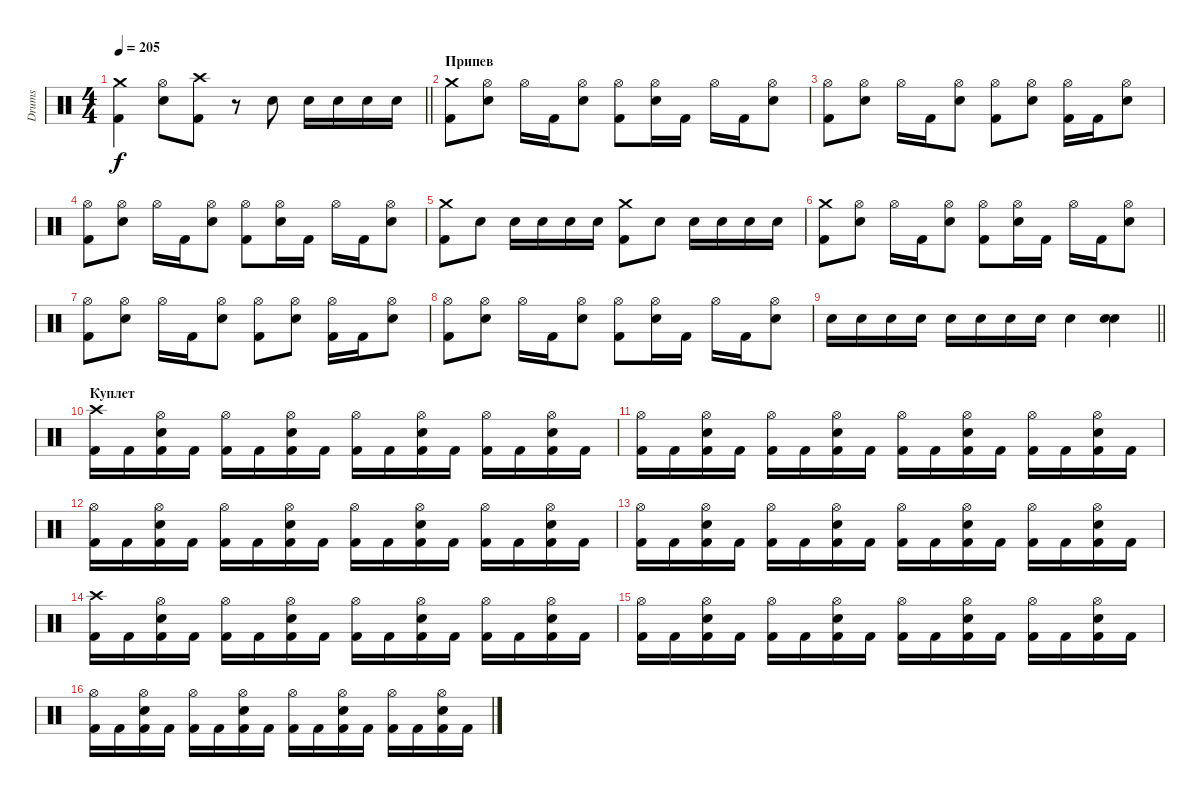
\track ("Drums" "Drums") {instrument percussion}
\staff {score}
\articulation defaults
\ts (4 4)
\tempo 205
\clef neutral
\barLineRight lightlight
\ks c
("Kick (hit) 2" "Crash medium (hit)").4{dy f} ("Electric Snare (hit)" "Hi-Hat (open)").8 ("Kick (hit) 2" "Crash high (hit)").8 r.8 "Electric Snare (hit)".8 "Electric Snare (hit)".16 "Electric Snare (hit)".16 "Electric Snare (hit)".16 "Electric Snare (hit)".16 |
\section ("" "Припев")
("Kick (hit) 2" "Crash medium (hit)").8 ("Electric Snare (hit)" "Hi-Hat (open)").8 "Hi-Hat (open)".16 "Kick (hit) 2".16 ("Electric Snare (hit)" "Hi-Hat (open)").8 ("Kick (hit) 2" "Hi-Hat (open)").8 ("Electric Snare (hit)" "Hi-Hat (open)").16 "Kick (hit) 2".16 "Hi-Hat (open)".16 "Kick (hit) 2".16 ("Electric Snare (hit)" "Hi-Hat (open)").8 |
("Kick (hit) 2" "Hi-Hat (open)").8 ("Electric Snare (hit)" "Hi-Hat (open)").8 "Hi-Hat (open)".16 "Kick (hit) 2".16 ("Electric Snare (hit)" "Hi-Hat (open)").8 ("Kick (hit) 2" "Hi-Hat (open)").8 ("Electric Snare (hit)" "Hi-Hat (open)").8 ("Kick (hit) 2" "Hi-Hat (open)").16 "Kick (hit) 2".16 ("Electric Snare (hit)" "Hi-Hat (open)").8 |
("Kick (hit) 2" "Hi-Hat (open)").8 ("Electric Snare (hit)" "Hi-Hat (open)").8 "Hi-Hat (open)".16 "Kick (hit) 2".16 ("Electric Snare (hit)" "Hi-Hat (open)").8 ("Kick (hit) 2" "Hi-Hat (open)").8 ("Electric Snare (hit)" "Hi-Hat (open)").16 "Kick (hit) 2".16 "Hi-Hat (open)".16 "Kick (hit) 2".16 ("Electric Snare (hit)" "Hi-Hat (open)").8 |
("Kick (hit) 2" "Crash medium (hit)").8 "Electric Snare (hit)".8 "Electric Snare (hit)".16 "Electric Snare (hit)".16 "Electric Snare (hit)".16 "Electric Snare (hit)".16 ("Kick (hit) 2" "Crash medium (hit)").8 "Electric Snare (hit)".8 "Electric Snare (hit)".16 "Electric Snare (hit)".16 "Electric Snare (hit)".16 "Electric Snare (hit)".16 |
("Kick (hit) 2" "Crash medium (hit)").8 ("Electric Snare (hit)" "Hi-Hat (open)").8 "Hi-Hat (open)".16 "Kick (hit) 2".16 ("Electric Snare (hit)" "Hi-Hat (open)").8 ("Kick (hit) 2" "Hi-Hat (open)").8 ("Electric Snare (hit)" "Hi-Hat (open)").16 "Kick (hit) 2".16 "Hi-Hat (open)".16 "Kick (hit) 2".16 ("Electric Snare (hit)" "Hi-Hat (open)").8 |
("Kick (hit) 2" "Hi-Hat (open)").8 ("Electric Snare (hit)" "Hi-Hat (open)").8 "Hi-Hat (open)".16 "Kick (hit) 2".16 ("Electric Snare (hit)" "Hi-Hat (open)").8 ("Kick (hit) 2" "Hi-Hat (open)").8 ("Electric Snare (hit)" "Hi-Hat (open)").8 ("Kick (hit) 2" "Hi-Hat (open)").16 "Kick (hit) 2".16 ("Electric Snare (hit)" "Hi-Hat (open)").8 |
("Kick (hit) 2" "Hi-Hat (open)").8 ("Electric Snare (hit)" "Hi-Hat (open)").8 "Hi-Hat (open)".16 "Kick (hit) 2".16 ("Electric Snare (hit)" "Hi-Hat (open)").8 ("Kick (hit) 2" "Hi-Hat (open)").8 ("Electric Snare (hit)" "Hi-Hat (open)").16 "Kick (hit) 2".16 "Hi-Hat (open)".16 "Kick (hit) 2".16 ("Electric Snare (hit)" "Hi-Hat (open)").8 |
\barLineRight lightlight "Electric Snare (hit)".16 "Electric Snare (hit)".16 "Electric Snare (hit)".16 "Electric Snare (hit)".16 "Electric Snare (hit)".16 "Electric Snare (hit)".16 "Electric Snare (hit)".16 "Electric Snare (hit)".16 "Electric Snare (hit)".4
("Electric Snare (hit)" "Electric Snare (hit)").4 |
\section ("" "Куплет")
("Kick (hit) 2" "Crash high (hit)").16 "Kick (hit) 2".16 ("Kick (hit) 2" "Electric Snare (hit)" "Hi-Hat (open)").16 "Kick (hit) 2".16 ("Kick (hit) 2" "Hi-Hat (open)").16 "Kick (hit) 2".16 ("Kick (hit) 2" "Electric Snare (hit)" "Hi-Hat (open)").16 "Kick (hit) 2".16 ("Kick (hit) 2" "Hi-Hat (open)").16 "Kick (hit) 2".16 ("Kick (hit) 2" "Electric Snare (hit)" "Hi-Hat (open)").16 "Kick (hit) 2".16 ("Kick (hit) 2" "Hi-Hat (open)").16 "Kick (hit) 2".16 ("Kick (hit) 2" "Electric Snare (hit)" "Hi-Hat (open)").16 "Kick (hit) 2".16 |
("Kick (hit) 2" "Hi-Hat (open)").16 "Kick (hit) 2".16 ("Kick (hit) 2" "Electric Snare (hit)" "Hi-Hat (open)").16 "Kick (hit) 2".16 ("Kick (hit) 2" "Hi-Hat (open)").16 "Kick (hit) 2".16 ("Kick (hit) 2" "Electric Snare (hit)" "Hi-Hat (open)").16 "Kick (hit) 2".16 ("Kick (hit) 2" "Hi-Hat (open)").16 "Kick (hit) 2".16 ("Kick (hit) 2" "Electric Snare (hit)" "Hi-Hat (open)").16 "Kick (hit) 2".16 ("Kick (hit) 2" "Hi-Hat (open)").16 "Kick (hit) 2".16 ("Kick (hit) 2" "Electric Snare (hit)" "Hi-Hat (open)").16 "Kick (hit) 2".16 |
("Kick (hit) 2" "Hi-Hat (open)").16 "Kick (hit) 2".16 ("Kick (hit) 2" "Electric Snare (hit)" "Hi-Hat (open)").16 "Kick (hit) 2".16 ("Kick (hit) 2" "Hi-Hat (open)").16 "Kick (hit) 2".16 ("Kick (hit) 2" "Electric Snare (hit)" "Hi-Hat (open)").16 "Kick (hit) 2".16 ("Kick (hit) 2" "Hi-Hat (open)").16 "Kick (hit) 2".16 ("Kick (hit) 2" "Electric Snare (hit)" "Hi-Hat (open)").16 "Kick (hit) 2".16 ("Kick (hit) 2" "Hi-Hat (open)").16 "Kick (hit) 2".16 ("Kick (hit) 2" "Electric Snare (hit)" "Hi-Hat (open)").16 "Kick (hit) 2".16 |
("Kick (hit) 2" "Hi-Hat (open)").16 "Kick (hit) 2".16 ("Kick (hit) 2" "Electric Snare (hit)" "Hi-Hat (open)").16 "Kick (hit) 2".16 ("Kick (hit) 2" "Hi-Hat (open)").16 "Kick (hit) 2".16 ("Kick (hit) 2" "Electric Snare (hit)" "Hi-Hat (open)").16 "Kick (hit) 2".16 ("Kick (hit) 2" "Hi-Hat (open)").16 "Kick (hit) 2".16 ("Kick (hit) 2" "Electric Snare (hit)" "Hi-Hat (open)").16 "Kick (hit) 2".16 ("Kick (hit) 2" "Hi-Hat (open)").16 "Kick (hit) 2".16 ("Kick (hit) 2" "Electric Snare (hit)" "Hi-Hat (open)").16 "Kick (hit) 2".16 |
("Kick (hit) 2" "Crash high (hit)").16 "Kick (hit) 2".16 ("Kick (hit) 2" "Electric Snare (hit)" "Hi-Hat (open)").16 "Kick (hit) 2".16 ("Kick (hit) 2" "Hi-Hat (open)").16 "Kick (hit) 2".16 ("Kick (hit) 2" "Electric Snare (hit)" "Hi-Hat (open)").16 "Kick (hit) 2".16 ("Kick (hit) 2" "Hi-Hat (open)").16 "Kick (hit) 2".16 ("Kick (hit) 2" "Electric Snare (hit)" "Hi-Hat (open)").16 "Kick (hit) 2".16 ("Kick (hit) 2" "Hi-Hat (open)").16 "Kick (hit) 2".16 ("Kick (hit) 2" "Electric Snare (hit)" "Hi-Hat (open)").16 "Kick (hit) 2".16 |
("Kick (hit) 2" "Hi-Hat (open)").16 "Kick (hit) 2".16 ("Kick (hit) 2" "Electric Snare (hit)" "Hi-Hat (open)").16 "Kick (hit) 2".16 ("Kick (hit) 2" "Hi-Hat (open)").16 "Kick (hit) 2".16 ("Kick (hit) 2" "Electric Snare (hit)" "Hi-Hat (open)").16 "Kick (hit) 2".16 ("Kick (hit) 2" "Hi-Hat (open)").16 "Kick (hit) 2".16 ("Kick (hit) 2" "Electric Snare (hit)" "Hi-Hat (open)").16 "Kick (hit) 2".16 ("Kick (hit) 2" "Hi-Hat (open)").16 "Kick (hit) 2".16 ("Kick (hit) 2" "Electric Snare (hit)" "Hi-Hat (open)").16 "Kick (hit) 2".16 |
("Kick (hit) 2" "Hi-Hat (open)").16 "Kick (hit) 2".16 ("Kick (hit) 2" "Electric Snare (hit)" "Hi-Hat (open)").16 "Kick (hit) 2".16 ("Kick (hit) 2" "Hi-Hat (open)").16 "Kick (hit) 2".16 ("Kick (hit) 2" "Electric Snare (hit)" "Hi-Hat (open)").16 "Kick (hit) 2".16 ("Kick (hit) 2" "Hi-Hat (open)").16 "Kick (hit) 2".16 ("Kick (hit) 2" "Electric Snare (hit)" "Hi-Hat (open)").16 "Kick (hit) 2".16 ("Kick (hit) 2" "Hi-Hat (open)").16 "Kick (hit) 2".16 ("Kick (hit) 2" "Electric Snare (hit)" "Hi-Hat (open)").16 "Kick (hit) 2".16
